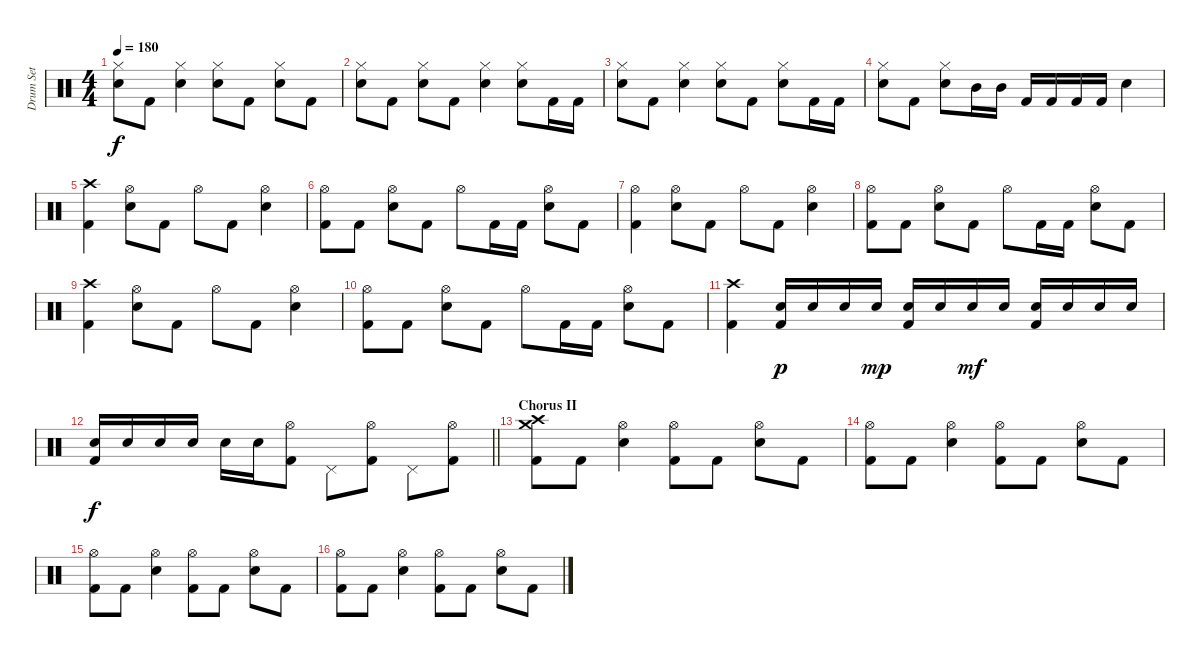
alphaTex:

\track ("Drum Set" "Drum Set") {instrument percussion}
\staff {score}
\articulation defaults
\ts (4 4)
\tempo 180
\clef neutral
\ks c
("Hi-Hat (closed)" "Snare (hit) 2").8{dy f} "Kick (hit) 2".8 ("Hi-Hat (closed)" "Snare (hit) 2").4 ("Hi-Hat (closed)" "Snare (hit) 2").8 "Kick (hit) 2".8 ("Hi-Hat (closed)" "Snare (hit) 2").8 "Kick (hit) 2".8 |
("Hi-Hat (closed)" "Snare (hit) 2").8 "Kick (hit) 2".8 ("Hi-Hat (closed)" "Snare (hit) 2").8 "Kick (hit) 2".8 ("Hi-Hat (closed)" "Snare (hit) 2").4 ("Hi-Hat (closed)" "Snare (hit) 2").8 "Kick (hit) 2".16 "Kick (hit) 2".16 |
("Hi-Hat (closed)" "Snare (hit) 2").8 "Kick (hit) 2".8 ("Hi-Hat (closed)" "Snare (hit) 2").4 ("Hi-Hat (closed)" "Snare (hit) 2").8 "Kick (hit) 2".8 ("Hi-Hat (closed)" "Snare (hit) 2").8 "Kick (hit) 2".16 "Kick (hit) 2".16 |
("Hi-Hat (closed)" "Snare (hit) 2").8 "Kick (hit) 2".8 ("Hi-Hat (closed)" "Snare (hit) 2").8 "Mid Tom (hit)".16 "Mid Tom (hit)".16 "Kick (hit) 2".16 "Kick (hit) 2".16 "Kick (hit) 2".16 "Kick (hit) 2".16 "Snare (hit) 2".4 |
("Crash high (hit)" "Kick (hit) 2").4 ("Hi-Hat (open)" "Snare (hit) 2").8 "Kick (hit) 2".8 "Hi-Hat (open)".8 "Kick (hit) 2".8 ("Hi-Hat (open)" "Snare (hit) 2").4 |
("Hi-Hat (open)" "Kick (hit) 2").8 "Kick (hit) 2".8 ("Hi-Hat (open)" "Snare (hit) 2").8 "Kick (hit) 2".8 "Hi-Hat (open)".8 "Kick (hit) 2".16 "Kick (hit) 2".16 ("Hi-Hat (open)" "Snare (hit) 2").8 "Kick (hit) 2".8 |
("Hi-Hat (open)" "Kick (hit) 2").4 ("Hi-Hat (open)" "Snare (hit) 2").8 "Kick (hit) 2".8 "Hi-Hat (open)".8 "Kick (hit) 2".8 ("Hi-Hat (open)" "Snare (hit) 2").4 |
("Hi-Hat (open)" "Kick (hit) 2").8 "Kick (hit) 2".8 ("Hi-Hat (open)" "Snare (hit) 2").8 "Kick (hit) 2".8 "Hi-Hat (open)".8 "Kick (hit) 2".16 "Kick (hit) 2".16 ("Hi-Hat (open)" "Snare (hit) 2").8 "Kick (hit) 2".8 |
("Crash high (hit)" "Kick (hit) 2").4 ("Hi-Hat (open)" "Snare (hit) 2").8 "Kick (hit) 2".8 "Hi-Hat (open)".8 "Kick (hit) 2".8 ("Hi-Hat (open)" "Snare (hit) 2").4 |
("Hi-Hat (open)" "Kick (hit) 2").8 "Kick (hit) 2".8 ("Hi-Hat (open)" "Snare (hit) 2").8 "Kick (hit) 2".8 "Hi-Hat (open)".8 "Kick (hit) 2".16 "Kick (hit) 2".16 ("Hi-Hat (open)" "Snare (hit) 2").8 "Kick (hit) 2".8 |
("Crash high (hit)" "Kick (hit) 2").4 ("Snare (hit) 2" "Kick (hit) 2").16{dy p} "Snare (hit) 2".16 "Snare (hit) 2".16 "Snare (hit) 2".16{dy mp} ("Snare (hit) 2" "Kick (hit) 2").16 "Snare (hit) 2".16 "Snare (hit) 2".16{dy mf} "Snare (hit) 2".16 ("Snare (hit) 2" "Kick (hit) 2").16 "Snare (hit) 2".16 "Snare (hit) 2".16 "Snare (hit) 2".16 |
\barLineRight lightlight
("Snare (hit) 2" "Kick (hit) 2").16{dy f} "Snare (hit) 2".16 "Snare (hit) 2".16 "Snare (hit) 2".16 "Snare (hit) 2".16 "Snare (hit) 2".16 ("Hi-Hat (open)" "Kick (hit) 2").8 "Pedal Hi-Hat (hit)".8 ("Hi-Hat (open)" "Kick (hit) 2").8 "Pedal Hi-Hat (hit)".8 ("Hi-Hat (open)" "Kick (hit) 2").8 |
\section ("" "Chorus II")
("Crash medium (hit)" "Crash high (hit)" "Kick (hit) 2").8 "Kick (hit) 2".8 ("Hi-Hat (open)" "Snare (hit) 2").4 ("Hi-Hat (open)" "Kick (hit) 2").8 "Kick (hit) 2".8 ("Hi-Hat (open)" "Snare (hit) 2").8 "Kick (hit) 2".8 |
("Hi-Hat (open)" "Kick (hit) 2").8 "Kick (hit) 2".8 ("Hi-Hat (open)" "Snare (hit) 2").4 ("Hi-Hat (open)" "Kick (hit) 2").8 "Kick (hit) 2".8 ("Hi-Hat (open)" "Snare (hit) 2").8 "Kick (hit) 2".8 |
("Hi-Hat (open)" "Kick (hit) 2").8 "Kick (hit) 2".8 ("Hi-Hat (open)" "Snare (hit) 2").4 ("Hi-Hat (open)" "Kick (hit) 2").8 "Kick (hit) 2".8 ("Hi-Hat (open)" "Snare (hit) 2").8 "Kick (hit) 2".8 |
("Hi-Hat (open)" "Kick (hit) 2").8 "Kick (hit) 2".8 ("Hi-Hat (open)" "Snare (hit) 2").4 ("Hi-Hat (open)" "Kick (hit) 2").8 "Kick (hit) 2".8 ("Hi-Hat (open)" "Snare (hit) 2").8 "Kick (hit) 2".8
